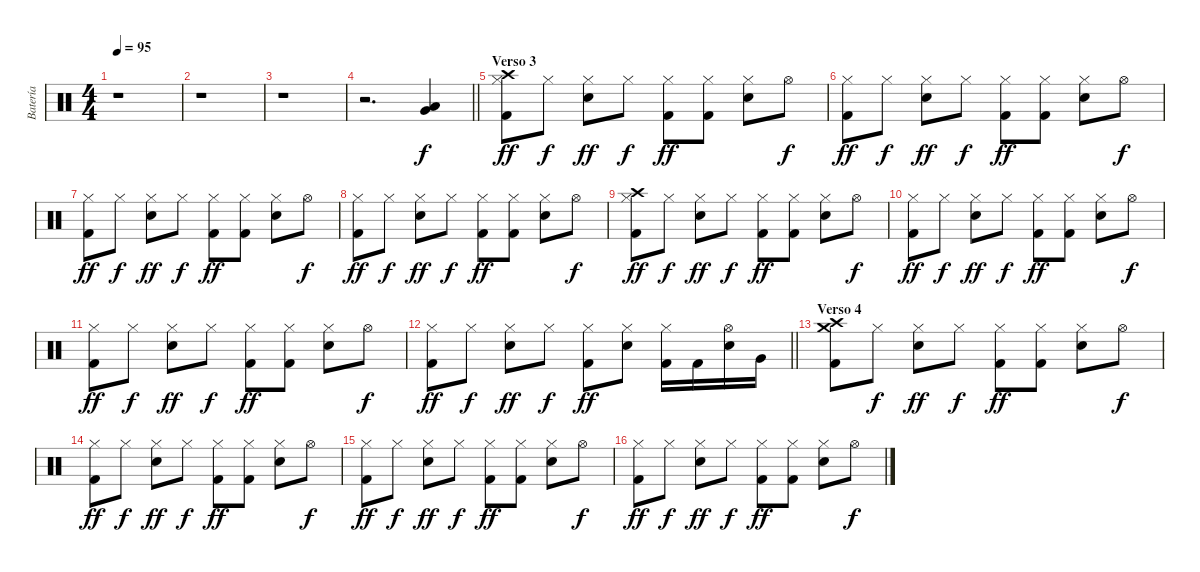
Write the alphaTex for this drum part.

\track ("Batería" "Batería") {instrument percussion}
\staff {score}
\articulation defaults
\ts (4 4)
\tempo 95
\clef neutral
\ks c
r.1{dy f} |
r.1 |
r.1 |
\barLineRight lightlight
r.2{d} ("Low Tom (hit)" "Very Low Tom (hit)").4 |
\section ("" "Verso 3")
("Hi-Hat (closed)" "Crash high (hit)" "Kick (hit) 2").8{dy ff} "Hi-Hat (closed)".8{dy f} ("Hi-Hat (closed)" "Electric Snare (hit)").8{dy ff} "Hi-Hat (closed)".8{dy f} ("Hi-Hat (closed)" "Kick (hit) 2").8{dy ff} ("Hi-Hat (closed)" "Kick (hit) 2").8 ("Hi-Hat (closed)" "Electric Snare (hit)").8 "Hi-Hat (open)".8{dy f} |
("Hi-Hat (closed)" "Kick (hit) 2").8{dy ff} "Hi-Hat (closed)".8{dy f} ("Hi-Hat (closed)" "Electric Snare (hit)").8{dy ff} "Hi-Hat (closed)".8{dy f} ("Hi-Hat (closed)" "Kick (hit) 2").8{dy ff} ("Hi-Hat (closed)" "Kick (hit) 2").8 ("Hi-Hat (closed)" "Electric Snare (hit)").8 "Hi-Hat (open)".8{dy f} |
("Hi-Hat (closed)" "Kick (hit) 2").8{dy ff} "Hi-Hat (closed)".8{dy f} ("Hi-Hat (closed)" "Electric Snare (hit)").8{dy ff} "Hi-Hat (closed)".8{dy f} ("Hi-Hat (closed)" "Kick (hit) 2").8{dy ff} ("Hi-Hat (closed)" "Kick (hit) 2").8 ("Hi-Hat (closed)" "Electric Snare (hit)").8 "Hi-Hat (open)".8{dy f} |
("Hi-Hat (closed)" "Kick (hit) 2").8{dy ff} "Hi-Hat (closed)".8{dy f} ("Hi-Hat (closed)" "Electric Snare (hit)").8{dy ff} "Hi-Hat (closed)".8{dy f} ("Hi-Hat (closed)" "Kick (hit) 2").8{dy ff} ("Hi-Hat (closed)" "Kick (hit) 2").8 ("Hi-Hat (closed)" "Electric Snare (hit)").8 "Hi-Hat (open)".8{dy f} |
("Hi-Hat (closed)" "Crash high (hit)" "Kick (hit) 2").8{dy ff} "Hi-Hat (closed)".8{dy f} ("Hi-Hat (closed)" "Electric Snare (hit)").8{dy ff} "Hi-Hat (closed)".8{dy f} ("Hi-Hat (closed)" "Kick (hit) 2").8{dy ff} ("Hi-Hat (closed)" "Kick (hit) 2").8 ("Hi-Hat (closed)" "Electric Snare (hit)").8 "Hi-Hat (open)".8{dy f} |
("Hi-Hat (closed)" "Kick (hit) 2").8{dy ff} "Hi-Hat (closed)".8{dy f} ("Hi-Hat (closed)" "Electric Snare (hit)").8{dy ff} "Hi-Hat (closed)".8{dy f} ("Hi-Hat (closed)" "Kick (hit) 2").8{dy ff} ("Hi-Hat (closed)" "Kick (hit) 2").8 ("Hi-Hat (closed)" "Electric Snare (hit)").8 "Hi-Hat (open)".8{dy f} |
("Hi-Hat (closed)" "Kick (hit) 2").8{dy ff} "Hi-Hat (closed)".8{dy f} ("Hi-Hat (closed)" "Electric Snare (hit)").8{dy ff} "Hi-Hat (closed)".8{dy f} ("Hi-Hat (closed)" "Kick (hit) 2").8{dy ff} ("Hi-Hat (closed)" "Kick (hit) 2").8 ("Hi-Hat (closed)" "Electric Snare (hit)").8 "Hi-Hat (open)".8{dy f} |
\barLineRight lightlight
("Hi-Hat (closed)" "Kick (hit) 2").8{dy ff} "Hi-Hat (closed)".8{dy f} ("Hi-Hat (closed)" "Electric Snare (hit)").8{dy ff} "Hi-Hat (closed)".8{dy f} ("Hi-Hat (closed)" "Kick (hit) 2").8{dy ff} ("Hi-Hat (closed)" "Electric Snare (hit)").8 ("Hi-Hat (closed)" "Kick (hit) 2").16 "Kick (hit) 2".16 ("Hi-Hat (open)" "Electric Snare (hit)").16 "Very Low Tom (hit)".16 |
\section ("" "Verso 4")
("Crash high (hit)" "Crash medium (hit)" "Kick (hit) 2").8 "Hi-Hat (closed)".8{dy f} ("Hi-Hat (closed)" "Electric Snare (hit)").8{dy ff} "Hi-Hat (closed)".8{dy f} ("Hi-Hat (closed)" "Kick (hit) 2").8{dy ff} ("Hi-Hat (closed)" "Kick (hit) 2").8 ("Hi-Hat (closed)" "Electric Snare (hit)").8 "Hi-Hat (open)".8{dy f} |
("Hi-Hat (closed)" "Kick (hit) 2").8{dy ff} "Hi-Hat (closed)".8{dy f} ("Hi-Hat (closed)" "Electric Snare (hit)").8{dy ff} "Hi-Hat (closed)".8{dy f} ("Hi-Hat (closed)" "Kick (hit) 2").8{dy ff} ("Hi-Hat (closed)" "Kick (hit) 2").8 ("Hi-Hat (closed)" "Electric Snare (hit)").8 "Hi-Hat (open)".8{dy f} |
("Hi-Hat (closed)" "Kick (hit) 2").8{dy ff} "Hi-Hat (closed)".8{dy f} ("Hi-Hat (closed)" "Electric Snare (hit)").8{dy ff} "Hi-Hat (closed)".8{dy f} ("Hi-Hat (closed)" "Kick (hit) 2").8{dy ff} ("Hi-Hat (closed)" "Kick (hit) 2").8 ("Hi-Hat (closed)" "Electric Snare (hit)").8 "Hi-Hat (open)".8{dy f} |
("Hi-Hat (closed)" "Kick (hit) 2").8{dy ff} "Hi-Hat (closed)".8{dy f} ("Hi-Hat (closed)" "Electric Snare (hit)").8{dy ff} "Hi-Hat (closed)".8{dy f} ("Hi-Hat (closed)" "Kick (hit) 2").8{dy ff} ("Hi-Hat (closed)" "Kick (hit) 2").8 ("Hi-Hat (closed)" "Electric Snare (hit)").8 "Hi-Hat (open)".8{dy f}
